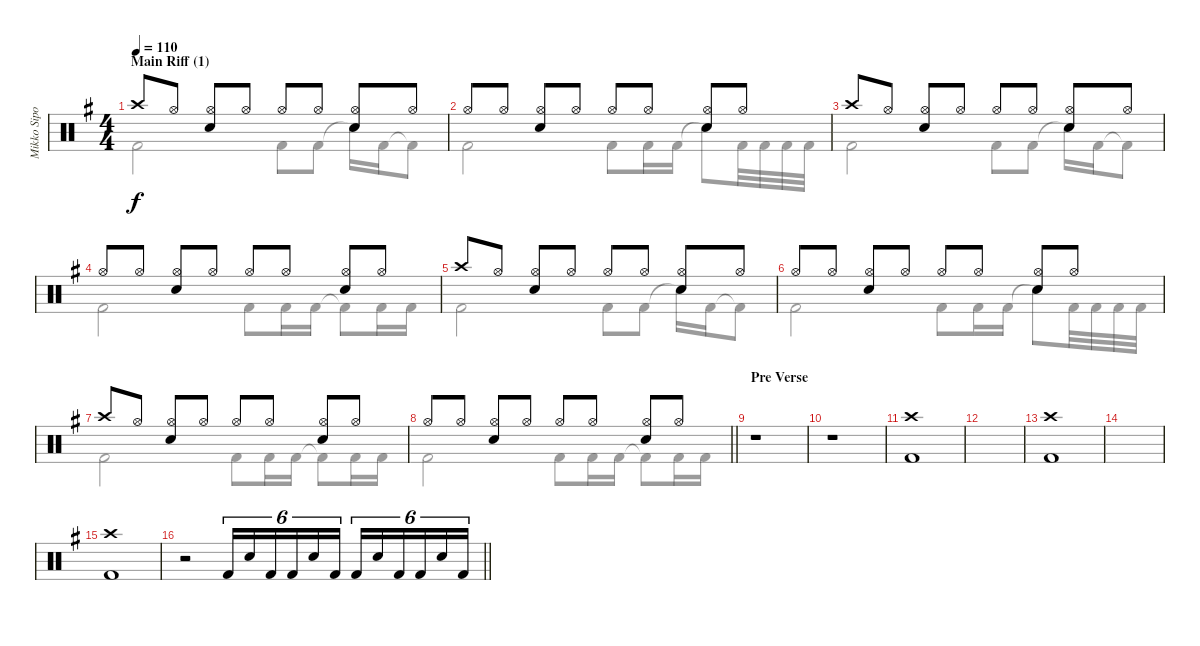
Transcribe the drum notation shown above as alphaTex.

\track ("Mikko Sipola (drums)" "Mikko Sipo") {instrument percussion}
\staff {score}
\articulation defaults
\voice
\ts (4 4)
\section ("" "Main Riff (1)")
\tempo 110
\clef neutral
\ks eminor "Crash high (hit)".8{dy f} "Hi-Hat (open)".8
("Electric Snare (hit)" "Hi-Hat (open)").8 "Hi-Hat (open)".8 "Hi-Hat (open)".8 "Hi-Hat (open)".8 ("Electric Snare (hit)" "Hi-Hat (open)").8 "Hi-Hat (open)".8 |
"Hi-Hat (open)".8 "Hi-Hat (open)".8 ("Electric Snare (hit)" "Hi-Hat (open)").8 "Hi-Hat (open)".8 "Hi-Hat (open)".8 "Hi-Hat (open)".8 ("Electric Snare (hit)" "Hi-Hat (open)").8 "Hi-Hat (open)".8 |
"Crash high (hit)".8 "Hi-Hat (open)".8 ("Electric Snare (hit)" "Hi-Hat (open)").8 "Hi-Hat (open)".8 "Hi-Hat (open)".8 "Hi-Hat (open)".8 ("Electric Snare (hit)" "Hi-Hat (open)").8 "Hi-Hat (open)".8 |
"Hi-Hat (open)".8 "Hi-Hat (open)".8 ("Electric Snare (hit)" "Hi-Hat (open)").8 "Hi-Hat (open)".8 "Hi-Hat (open)".8 "Hi-Hat (open)".8 ("Electric Snare (hit)" "Hi-Hat (open)").8 "Hi-Hat (open)".8 |
"Crash high (hit)".8 "Hi-Hat (open)".8 ("Electric Snare (hit)" "Hi-Hat (open)").8 "Hi-Hat (open)".8 "Hi-Hat (open)".8 "Hi-Hat (open)".8 ("Electric Snare (hit)" "Hi-Hat (open)").8 "Hi-Hat (open)".8 |
"Hi-Hat (open)".8 "Hi-Hat (open)".8 ("Electric Snare (hit)" "Hi-Hat (open)").8 "Hi-Hat (open)".8 "Hi-Hat (open)".8 "Hi-Hat (open)".8 ("Electric Snare (hit)" "Hi-Hat (open)").8 "Hi-Hat (open)".8 |
"Crash high (hit)".8 "Hi-Hat (open)".8 ("Electric Snare (hit)" "Hi-Hat (open)").8 "Hi-Hat (open)".8 "Hi-Hat (open)".8 "Hi-Hat (open)".8 ("Electric Snare (hit)" "Hi-Hat (open)").8 "Hi-Hat (open)".8 |
\barLineRight lightlight "Hi-Hat (open)".8 "Hi-Hat (open)".8
("Electric Snare (hit)" "Hi-Hat (open)").8 "Hi-Hat (open)".8 "Hi-Hat (open)".8 "Hi-Hat (open)".8 ("Electric Snare (hit)" "Hi-Hat (open)").8 "Hi-Hat (open)".8 |
\section ("" "Pre Verse")
r.1 |
r.1 |
("Crash high (hit)" "Kick (hit) 2").1 |
|
("Crash high (hit)" "Kick (hit) 2").1 |
|
("Crash high (hit)" "Kick (hit) 2").1 |
\barLineRight lightlight
r.2 "Kick (hit) 2".16{tu (6 4)} "Electric Snare (hit)".16{tu (6 4)} "Kick (hit) 2".16{tu (6 4)} "Kick (hit) 2".16{tu (6 4)} "Electric Snare (hit)".16{tu (6 4)} "Kick (hit) 2".16{tu (6 4)} "Kick (hit) 2".16{tu (6 4)} "Electric Snare (hit)".16{tu (6 4)} "Kick (hit) 2".16{tu (6 4)} "Kick (hit) 2".16{tu (6 4)} "Electric Snare (hit)".16{tu (6 4)} "Kick (hit) 2".16{tu (6 4)}
\voice
\clef neutral
\ottava regular
\simile none
\ks eminor "Kick (hit) 2".2{dy f} "Kick (hit) 2".8 "Kick (hit) 2".8 "Snare (hit)"{t}.16 "Kick (hit) 2".16 "Kick (hit) 2"{t}.8
|
"Kick (hit) 2".2 "Kick (hit) 2".8 "Kick (hit) 2".16 "Kick (hit) 2".16 "Snare (hit)"{t}.8 "Kick (hit) 2".32 "Kick (hit) 2".32 "Kick (hit) 2".32 "Kick (hit) 2".32 |
"Kick (hit) 2".2 "Kick (hit) 2".8 "Kick (hit) 2".8 "Snare (hit)"{t}.16 "Kick (hit) 2".16 "Kick (hit) 2"{t}.8 |
"Kick (hit) 2".2 "Kick (hit) 2".8 "Kick (hit) 2".16 "Kick (hit) 2".16 "Kick (hit) 2"{t}.8 "Kick (hit) 2".16 "Kick (hit) 2".16 |
"Kick (hit) 2".2 "Kick (hit) 2".8 "Kick (hit) 2".8 "Snare (hit)"{t}.16 "Kick (hit) 2".16 "Kick (hit) 2"{t}.8 |
"Kick (hit) 2".2 "Kick (hit) 2".8 "Kick (hit) 2".16 "Kick (hit) 2".16 "Snare (hit)"{t}.8 "Kick (hit) 2".32 "Kick (hit) 2".32 "Kick (hit) 2".32 "Kick (hit) 2".32 |
"Kick (hit) 2".2 "Kick (hit) 2".8 "Kick (hit) 2".16 "Kick (hit) 2".16 "Kick (hit) 2"{t}.8 "Kick (hit) 2".16 "Kick (hit) 2".16 |
\barLineRight lightlight "Kick (hit) 2".2 "Kick (hit) 2".8 "Kick (hit) 2".16 "Kick (hit) 2".16 "Kick (hit) 2"{t}.8 "Kick (hit) 2".16 "Kick (hit) 2".16
|
|
|
|
|
|
|
|
\barLineRight lightlight
